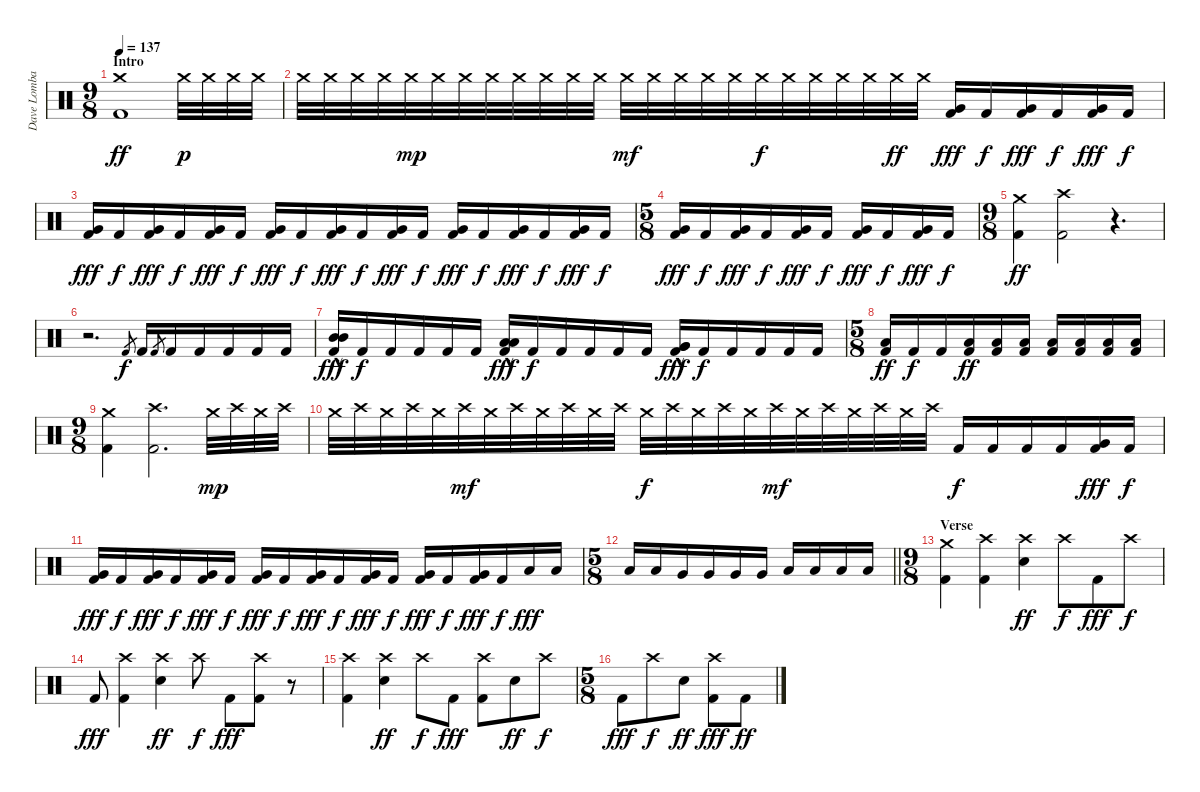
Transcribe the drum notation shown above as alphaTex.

\track ("Dave Lombardo" "Dave Lomba") {instrument percussion}
\staff {score}
\articulation defaults
\ts (9 8)
\section ("" "Intro")
\tempo 137
\clef neutral
\ks c
("Crash medium (hit)" "Kick (hit) 2").1{dy ff} "Crash medium (hit)".32{dy p} "Crash medium (hit)".32 "Crash medium (hit)".32 "Crash medium (hit)".32 |
"Crash medium (hit)".32 "Crash medium (hit)".32 "Crash medium (hit)".32 "Crash medium (hit)".32 "Crash medium (hit)".32{dy mp} "Crash medium (hit)".32 "Crash medium (hit)".32 "Crash medium (hit)".32 "Crash medium (hit)".32 "Crash medium (hit)".32 "Crash medium (hit)".32 "Crash medium (hit)".32 "Crash medium (hit)".32{dy mf} "Crash medium (hit)".32 "Crash medium (hit)".32 "Crash medium (hit)".32 "Crash medium (hit)".32 "Crash medium (hit)".32{dy f} "Crash medium (hit)".32 "Crash medium (hit)".32 "Crash medium (hit)".32 "Crash medium (hit)".32 "Crash medium (hit)".32{dy ff} "Crash medium (hit)".32 ("Very Low Tom (hit)" "Kick (hit) 2").16{dy fff} "Kick (hit) 2".16{dy f} ("Very Low Tom (hit)" "Kick (hit) 2").16{dy fff} "Kick (hit) 2".16{dy f} ("Very Low Tom (hit)" "Kick (hit) 2").16{dy fff} "Kick (hit) 2".16{dy f} |
("Very Low Tom (hit)" "Kick (hit) 2").16{dy fff} "Kick (hit) 2".16{dy f} ("Very Low Tom (hit)" "Kick (hit) 2").16{dy fff} "Kick (hit) 2".16{dy f} ("Very Low Tom (hit)" "Kick (hit) 2").16{dy fff} "Kick (hit) 2".16{dy f} ("Very Low Tom (hit)" "Kick (hit) 2").16{dy fff} "Kick (hit) 2".16{dy f} ("Very Low Tom (hit)" "Kick (hit) 2").16{dy fff} "Kick (hit) 2".16{dy f} ("Very Low Tom (hit)" "Kick (hit) 2").16{dy fff} "Kick (hit) 2".16{dy f} ("Very Low Tom (hit)" "Kick (hit) 2").16{dy fff} "Kick (hit) 2".16{dy f} ("Very Low Tom (hit)" "Kick (hit) 2").16{dy fff} "Kick (hit) 2".16{dy f} ("Very Low Tom (hit)" "Kick (hit) 2").16{dy fff} "Kick (hit) 2".16{dy f} |
\ts (5 8)
("Very Low Tom (hit)" "Kick (hit) 2").16{dy fff} "Kick (hit) 2".16{dy f} ("Very Low Tom (hit)" "Kick (hit) 2").16{dy fff} "Kick (hit) 2".16{dy f} ("Very Low Tom (hit)" "Kick (hit) 2").16{dy fff} "Kick (hit) 2".16{dy f} ("Very Low Tom (hit)" "Kick (hit) 2").16{dy fff} "Kick (hit) 2".16{dy f} ("Very Low Tom (hit)" "Kick (hit) 2").16{dy fff} "Kick (hit) 2".16{dy f} |
\ts (9 8)
("Crash medium (hit)" "Kick (hit) 2").4{dy ff} ("Crash high (hit)" "Kick (hit) 2").2 r.4{d} |
r.2{d} "Kick (hit) 2".8{gr dy f} "Kick (hit) 2".16 "Kick (hit) 2".8{gr} "Kick (hit) 2".16 "Kick (hit) 2".16 "Kick (hit) 2".16 "Kick (hit) 2".16 "Kick (hit) 2".16 |
("Mid Tom (hit)"{hac} "Mid Tom (hit)"{hac} "Kick (hit) 2").16{dy fff} "Kick (hit) 2".16{dy f} "Kick (hit) 2".16 "Kick (hit) 2".16 "Kick (hit) 2".16 "Kick (hit) 2".16 ("Low Tom (hit)"{hac} "Low Tom (hit)"{hac} "Kick (hit) 2").16{dy fff} "Kick (hit) 2".16{dy f} "Kick (hit) 2".16 "Kick (hit) 2".16 "Kick (hit) 2".16 "Kick (hit) 2".16 ("Very Low Tom (hit)"{hac} "Very Low Tom (hit)"{hac} "Kick (hit) 2").16{dy fff} "Kick (hit) 2".16{dy f} "Kick (hit) 2".16 "Kick (hit) 2".16 "Kick (hit) 2".16 "Kick (hit) 2".16 |
\ts (5 8)
("Low Floor Tom (hit)" "Kick (hit) 2").16{dy ff} "Kick (hit) 2".16{dy f} "Kick (hit) 2".16 ("Low Floor Tom (hit)" "Kick (hit) 2").16{dy ff} ("Low Floor Tom (hit)" "Kick (hit) 2").16 ("Low Floor Tom (hit)" "Kick (hit) 2").16 ("Low Floor Tom (hit)" "Kick (hit) 2").16 ("Low Floor Tom (hit)" "Kick (hit) 2").16 ("Low Floor Tom (hit)" "Kick (hit) 2").16 ("Low Floor Tom (hit)" "Kick (hit) 2").16 |
\ts (9 8)
("Crash medium (hit)" "Kick (hit) 2").4 ("Crash high (hit)" "Kick (hit) 2").2{d} "Crash medium (hit)".32{dy mp} "Crash high (hit)".32 "Crash medium (hit)".32 "Crash high (hit)".32 |
"Crash medium (hit)".32 "Crash high (hit)".32 "Crash medium (hit)".32 "Crash high (hit)".32 "Crash medium (hit)".32 "Crash high (hit)".32{dy mf} "Crash medium (hit)".32 "Crash high (hit)".32 "Crash medium (hit)".32 "Crash high (hit)".32 "Crash medium (hit)".32 "Crash high (hit)".32 "Crash medium (hit)".32{dy f} "Crash high (hit)".32 "Crash medium (hit)".32 "Crash high (hit)".32 "Crash medium (hit)".32 "Crash high (hit)".32{dy mf} "Crash medium (hit)".32 "Crash high (hit)".32 "Crash medium (hit)".32 "Crash high (hit)".32 "Crash medium (hit)".32 "Crash high (hit)".32 "Kick (hit) 2".16{dy f} "Kick (hit) 2".16 "Kick (hit) 2".16 "Kick (hit) 2".16 ("Very Low Tom (hit)" "Kick (hit) 2").16{dy fff} "Kick (hit) 2".16{dy f} |
("Very Low Tom (hit)" "Kick (hit) 2").16{dy fff} "Kick (hit) 2".16{dy f} ("Very Low Tom (hit)" "Kick (hit) 2").16{dy fff} "Kick (hit) 2".16{dy f} ("Very Low Tom (hit)" "Kick (hit) 2").16{dy fff} "Kick (hit) 2".16{dy f} ("Very Low Tom (hit)" "Kick (hit) 2").16{dy fff} "Kick (hit) 2".16{dy f} ("Very Low Tom (hit)" "Kick (hit) 2").16{dy fff} "Kick (hit) 2".16{dy f} ("Very Low Tom (hit)" "Kick (hit) 2").16{dy fff} "Kick (hit) 2".16{dy f} ("Very Low Tom (hit)" "Kick (hit) 2").16{dy fff} "Kick (hit) 2".16{dy f} ("Very Low Tom (hit)" "Kick (hit) 2").16{dy fff} "Kick (hit) 2".16{dy f} "Low Tom (hit)".16{dy fff} "Low Tom (hit)".16 |
\ts (5 8)
\barLineRight lightlight "Low Tom (hit)".16 "Low Tom (hit)".16 "Very Low Tom (hit)".16 "Very Low Tom (hit)".16 "Very Low Tom (hit)".16 "Very Low Tom (hit)".16 "Low Floor Tom (hit)".16 "Low Floor Tom (hit)".16 "Low Floor Tom (hit)".16 "Low Floor Tom (hit)".16
|
\ts (9 8)
\section ("" "Verse")
("Crash medium (hit)" "Kick (hit) 2").4 ("Crash high (hit)" "Kick (hit) 2").4 ("Crash high (hit)" "Snare (hit) 2").4{dy ff} "Crash high (hit)".8{dy f} "Kick (hit) 2".8{dy fff} "Crash high (hit)".8{dy f} |
"Kick (hit) 2".8{dy fff} ("Crash high (hit)" "Kick (hit) 2").4 ("Crash high (hit)" "Snare (hit) 2").4{dy ff} "Crash high (hit)".8{dy f} "Kick (hit) 2".8{dy fff} ("Crash high (hit)" "Kick (hit) 2").8 r.8 |
("Crash high (hit)" "Kick (hit) 2").4 ("Crash high (hit)" "Snare (hit) 2").4{dy ff} "Crash high (hit)".8{dy f} "Kick (hit) 2".8{dy fff} ("Crash high (hit)" "Kick (hit) 2").8 "Snare (hit) 2".8{dy ff} "Crash high (hit)".8{dy f} |
\ts (5 8)
"Kick (hit) 2".8{dy fff} "Crash high (hit)".8{dy f} "Snare (hit) 2".8{dy ff} ("Crash high (hit)" "Kick (hit) 2").8{dy fff} "Kick (hit) 2".8{dy ff}
